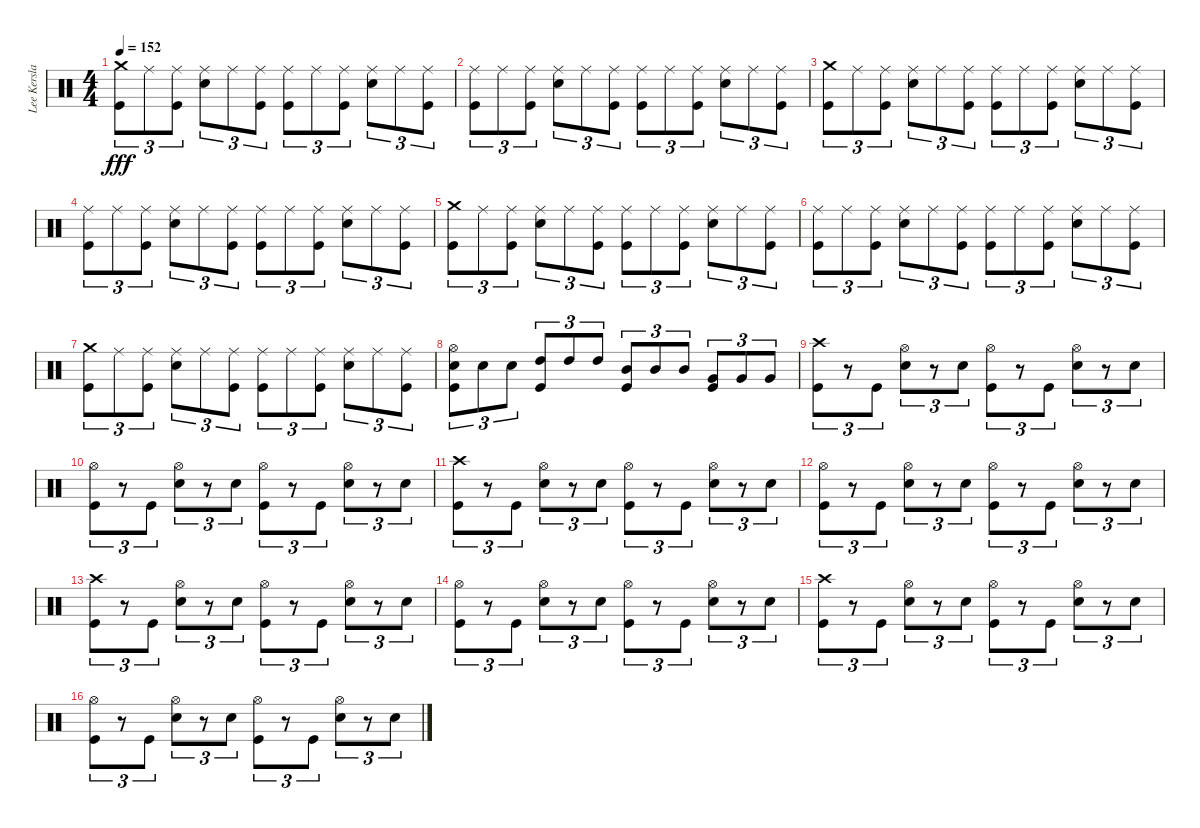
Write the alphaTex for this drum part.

\track ("Lee Kerslake" "Lee Kersla") {instrument percussion}
\staff {score}
\articulation defaults
\ts (4 4)
\tempo 152
\clef neutral
\ks c
("Crash medium (hit)" "Kick (hit)").8{tu (3 2) dy fff} "Ride (middle)".8{tu (3 2)} ("Ride (middle)" "Kick (hit)").8{tu (3 2)} ("Ride (middle)" "Electric Snare (hit)").8{tu (3 2)} "Ride (middle)".8{tu (3 2)} ("Ride (middle)" "Kick (hit)").8{tu (3 2)} ("Ride (middle)" "Kick (hit)").8{tu (3 2)} "Ride (middle)".8{tu (3 2)} ("Ride (middle)" "Kick (hit)").8{tu (3 2)} ("Ride (middle)" "Electric Snare (hit)").8{tu (3 2)} "Ride (middle)".8{tu (3 2)} ("Ride (middle)" "Kick (hit)").8{tu (3 2)} |
("Ride (middle)" "Kick (hit)").8{tu (3 2)} "Ride (middle)".8{tu (3 2)} ("Ride (middle)" "Kick (hit)").8{tu (3 2)} ("Ride (middle)" "Electric Snare (hit)").8{tu (3 2)} "Ride (middle)".8{tu (3 2)} ("Ride (middle)" "Kick (hit)").8{tu (3 2)} ("Ride (middle)" "Kick (hit)").8{tu (3 2)} "Ride (middle)".8{tu (3 2)} ("Ride (middle)" "Kick (hit)").8{tu (3 2)} ("Ride (middle)" "Electric Snare (hit)").8{tu (3 2)} "Ride (middle)".8{tu (3 2)} ("Ride (middle)" "Kick (hit)").8{tu (3 2)} |
("Crash medium (hit)" "Kick (hit)").8{tu (3 2)} "Ride (middle)".8{tu (3 2)} ("Ride (middle)" "Kick (hit)").8{tu (3 2)} ("Ride (middle)" "Electric Snare (hit)").8{tu (3 2)} "Ride (middle)".8{tu (3 2)} ("Ride (middle)" "Kick (hit)").8{tu (3 2)} ("Ride (middle)" "Kick (hit)").8{tu (3 2)} "Ride (middle)".8{tu (3 2)} ("Ride (middle)" "Kick (hit)").8{tu (3 2)} ("Ride (middle)" "Electric Snare (hit)").8{tu (3 2)} "Ride (middle)".8{tu (3 2)} ("Ride (middle)" "Kick (hit)").8{tu (3 2)} |
("Ride (middle)" "Kick (hit)").8{tu (3 2)} "Ride (middle)".8{tu (3 2)} ("Ride (middle)" "Kick (hit)").8{tu (3 2)} ("Ride (middle)" "Electric Snare (hit)").8{tu (3 2)} "Ride (middle)".8{tu (3 2)} ("Ride (middle)" "Kick (hit)").8{tu (3 2)} ("Ride (middle)" "Kick (hit)").8{tu (3 2)} "Ride (middle)".8{tu (3 2)} ("Ride (middle)" "Kick (hit)").8{tu (3 2)} ("Ride (middle)" "Electric Snare (hit)").8{tu (3 2)} "Ride (middle)".8{tu (3 2)} ("Ride (middle)" "Kick (hit)").8{tu (3 2)} |
("Crash medium (hit)" "Kick (hit)").8{tu (3 2)} "Ride (middle)".8{tu (3 2)} ("Ride (middle)" "Kick (hit)").8{tu (3 2)} ("Ride (middle)" "Electric Snare (hit)").8{tu (3 2)} "Ride (middle)".8{tu (3 2)} ("Ride (middle)" "Kick (hit)").8{tu (3 2)} ("Ride (middle)" "Kick (hit)").8{tu (3 2)} "Ride (middle)".8{tu (3 2)} ("Ride (middle)" "Kick (hit)").8{tu (3 2)} ("Ride (middle)" "Electric Snare (hit)").8{tu (3 2)} "Ride (middle)".8{tu (3 2)} ("Ride (middle)" "Kick (hit)").8{tu (3 2)} |
("Ride (middle)" "Kick (hit)").8{tu (3 2)} "Ride (middle)".8{tu (3 2)} ("Ride (middle)" "Kick (hit)").8{tu (3 2)} ("Ride (middle)" "Electric Snare (hit)").8{tu (3 2)} "Ride (middle)".8{tu (3 2)} ("Ride (middle)" "Kick (hit)").8{tu (3 2)} ("Ride (middle)" "Kick (hit)").8{tu (3 2)} "Ride (middle)".8{tu (3 2)} ("Ride (middle)" "Kick (hit)").8{tu (3 2)} ("Ride (middle)" "Electric Snare (hit)").8{tu (3 2)} "Ride (middle)".8{tu (3 2)} ("Ride (middle)" "Kick (hit)").8{tu (3 2)} |
("Crash medium (hit)" "Kick (hit)").8{tu (3 2)} "Ride (middle)".8{tu (3 2)} ("Ride (middle)" "Kick (hit)").8{tu (3 2)} ("Ride (middle)" "Electric Snare (hit)").8{tu (3 2)} "Ride (middle)".8{tu (3 2)} ("Ride (middle)" "Kick (hit)").8{tu (3 2)} ("Ride (middle)" "Kick (hit)").8{tu (3 2)} "Ride (middle)".8{tu (3 2)} ("Ride (middle)" "Kick (hit)").8{tu (3 2)} ("Ride (middle)" "Electric Snare (hit)").8{tu (3 2)} "Ride (middle)".8{tu (3 2)} ("Ride (middle)" "Kick (hit)").8{tu (3 2)} |
("Electric Snare (hit)" "Hi-Hat (open)" "Kick (hit)").8{tu (3 2)} "Electric Snare (hit)".8{tu (3 2)} "Electric Snare (hit)".8{tu (3 2)} ("High Tom (hit)" "Kick (hit)").8{tu (3 2)} "High Tom (hit)".8{tu (3 2)} "High Tom (hit)".8{tu (3 2)} ("Mid Tom (hit)" "Kick (hit)").8{tu (3 2)} "Mid Tom (hit)".8{tu (3 2)} "Mid Tom (hit)".8{tu (3 2)} ("Very Low Tom (hit)" "Kick (hit)").8{tu (3 2)} "Very Low Tom (hit)".8{tu (3 2)} "Very Low Tom (hit)".8{tu (3 2)} |
("Crash high (hit)" "Kick (hit)").8{tu (3 2)} r.8{tu (3 2)} "Kick (hit)".8{tu (3 2)} ("Hi-Hat (open)" "Electric Snare (hit)").8{tu (3 2)} r.8{tu (3 2)} "Electric Snare (hit)".8{tu (3 2)} ("Hi-Hat (open)" "Kick (hit)").8{tu (3 2)} r.8{tu (3 2)} "Kick (hit)".8{tu (3 2)} ("Hi-Hat (open)" "Electric Snare (hit)").8{tu (3 2)} r.8{tu (3 2)} "Electric Snare (hit)".8{tu (3 2)} |
("Hi-Hat (open)" "Kick (hit)").8{tu (3 2)} r.8{tu (3 2)} "Kick (hit)".8{tu (3 2)} ("Hi-Hat (open)" "Electric Snare (hit)").8{tu (3 2)} r.8{tu (3 2)} "Electric Snare (hit)".8{tu (3 2)} ("Hi-Hat (open)" "Kick (hit)").8{tu (3 2)} r.8{tu (3 2)} "Kick (hit)".8{tu (3 2)} ("Hi-Hat (open)" "Electric Snare (hit)").8{tu (3 2)} r.8{tu (3 2)} "Electric Snare (hit)".8{tu (3 2)} |
("Crash high (hit)" "Kick (hit)").8{tu (3 2)} r.8{tu (3 2)} "Kick (hit)".8{tu (3 2)} ("Hi-Hat (open)" "Electric Snare (hit)").8{tu (3 2)} r.8{tu (3 2)} "Electric Snare (hit)".8{tu (3 2)} ("Hi-Hat (open)" "Kick (hit)").8{tu (3 2)} r.8{tu (3 2)} "Kick (hit)".8{tu (3 2)} ("Hi-Hat (open)" "Electric Snare (hit)").8{tu (3 2)} r.8{tu (3 2)} "Electric Snare (hit)".8{tu (3 2)} |
("Hi-Hat (open)" "Kick (hit)").8{tu (3 2)} r.8{tu (3 2)} "Kick (hit)".8{tu (3 2)} ("Hi-Hat (open)" "Electric Snare (hit)").8{tu (3 2)} r.8{tu (3 2)} "Electric Snare (hit)".8{tu (3 2)} ("Hi-Hat (open)" "Kick (hit)").8{tu (3 2)} r.8{tu (3 2)} "Kick (hit)".8{tu (3 2)} ("Hi-Hat (open)" "Electric Snare (hit)").8{tu (3 2)} r.8{tu (3 2)} "Electric Snare (hit)".8{tu (3 2)} |
("Crash high (hit)" "Kick (hit)").8{tu (3 2)} r.8{tu (3 2)} "Kick (hit)".8{tu (3 2)} ("Hi-Hat (open)" "Electric Snare (hit)").8{tu (3 2)} r.8{tu (3 2)} "Electric Snare (hit)".8{tu (3 2)} ("Hi-Hat (open)" "Kick (hit)").8{tu (3 2)} r.8{tu (3 2)} "Kick (hit)".8{tu (3 2)} ("Hi-Hat (open)" "Electric Snare (hit)").8{tu (3 2)} r.8{tu (3 2)} "Electric Snare (hit)".8{tu (3 2)} |
("Hi-Hat (open)" "Kick (hit)").8{tu (3 2)} r.8{tu (3 2)} "Kick (hit)".8{tu (3 2)} ("Hi-Hat (open)" "Electric Snare (hit)").8{tu (3 2)} r.8{tu (3 2)} "Electric Snare (hit)".8{tu (3 2)} ("Hi-Hat (open)" "Kick (hit)").8{tu (3 2)} r.8{tu (3 2)} "Kick (hit)".8{tu (3 2)} ("Hi-Hat (open)" "Electric Snare (hit)").8{tu (3 2)} r.8{tu (3 2)} "Electric Snare (hit)".8{tu (3 2)} |
("Crash high (hit)" "Kick (hit)").8{tu (3 2)} r.8{tu (3 2)} "Kick (hit)".8{tu (3 2)} ("Hi-Hat (open)" "Electric Snare (hit)").8{tu (3 2)} r.8{tu (3 2)} "Electric Snare (hit)".8{tu (3 2)} ("Hi-Hat (open)" "Kick (hit)").8{tu (3 2)} r.8{tu (3 2)} "Kick (hit)".8{tu (3 2)} ("Hi-Hat (open)" "Electric Snare (hit)").8{tu (3 2)} r.8{tu (3 2)} "Electric Snare (hit)".8{tu (3 2)} |
("Hi-Hat (open)" "Kick (hit)").8{tu (3 2)} r.8{tu (3 2)} "Kick (hit)".8{tu (3 2)} ("Hi-Hat (open)" "Electric Snare (hit)").8{tu (3 2)} r.8{tu (3 2)} "Electric Snare (hit)".8{tu (3 2)} ("Hi-Hat (open)" "Kick (hit)").8{tu (3 2)} r.8{tu (3 2)} "Kick (hit)".8{tu (3 2)} ("Hi-Hat (open)" "Electric Snare (hit)").8{tu (3 2)} r.8{tu (3 2)} "Electric Snare (hit)".8{tu (3 2)}
